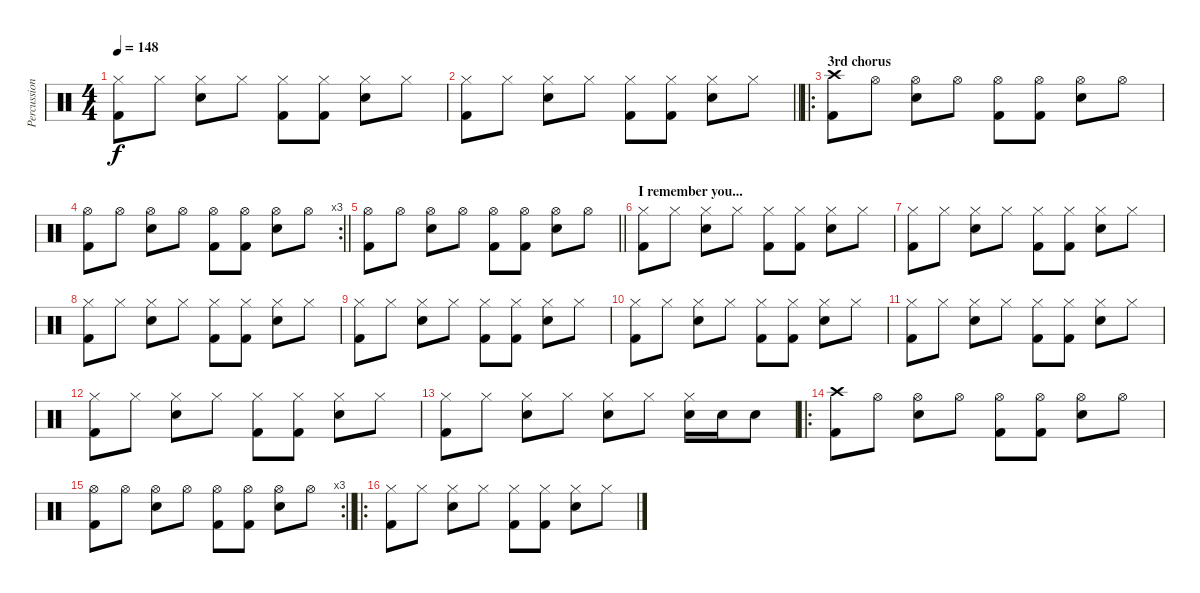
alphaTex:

\track ("Percussion" "Percussion") {instrument percussion}
\staff {score}
\articulation defaults
\ts (4 4)
\tempo 148
\clef neutral
\ks c
("Hi-Hat (closed)" "Kick (hit) 2").8{dy f} "Hi-Hat (closed)".8 ("Hi-Hat (closed)" "Snare (hit) 2").8 "Hi-Hat (closed)".8 ("Hi-Hat (closed)" "Kick (hit) 2").8 ("Hi-Hat (closed)" "Kick (hit) 2").8 ("Hi-Hat (closed)" "Snare (hit) 2").8 "Hi-Hat (closed)".8 |
\barLineRight lightlight
("Hi-Hat (closed)" "Kick (hit) 2").8 "Hi-Hat (closed)".8 ("Hi-Hat (closed)" "Snare (hit) 2").8 "Hi-Hat (closed)".8 ("Hi-Hat (closed)" "Kick (hit) 2").8 ("Hi-Hat (closed)" "Kick (hit) 2").8 ("Hi-Hat (closed)" "Snare (hit) 2").8 "Hi-Hat (closed)".8 |
\ro
\section ("" "3rd chorus")
("Crash high (hit)" "Kick (hit) 2").8 "Hi-Hat (open)".8 ("Hi-Hat (open)" "Snare (hit) 2").8 "Hi-Hat (open)".8 ("Hi-Hat (open)" "Kick (hit) 2").8 ("Hi-Hat (open)" "Kick (hit) 2").8 ("Hi-Hat (open)" "Snare (hit) 2").8 "Hi-Hat (open)".8 |
\rc 3
\barLineRight lightlight
("Hi-Hat (open)" "Kick (hit) 2").8 "Hi-Hat (open)".8 ("Hi-Hat (open)" "Snare (hit) 2").8 "Hi-Hat (open)".8 ("Hi-Hat (open)" "Kick (hit) 2").8 ("Hi-Hat (open)" "Kick (hit) 2").8 ("Hi-Hat (open)" "Snare (hit) 2").8 "Hi-Hat (open)".8 |
\barLineRight lightlight
("Hi-Hat (open)" "Kick (hit) 2").8 "Hi-Hat (open)".8 ("Hi-Hat (open)" "Snare (hit) 2").8 "Hi-Hat (open)".8 ("Hi-Hat (open)" "Kick (hit) 2").8 ("Hi-Hat (open)" "Kick (hit) 2").8 ("Hi-Hat (open)" "Snare (hit) 2").8 "Hi-Hat (open)".8 |
\section ("" "I remember you...")
("Hi-Hat (closed)" "Kick (hit) 2").8 "Hi-Hat (closed)".8 ("Hi-Hat (closed)" "Snare (hit) 2").8 "Hi-Hat (closed)".8 ("Hi-Hat (closed)" "Kick (hit) 2").8 ("Hi-Hat (closed)" "Kick (hit) 2").8 ("Hi-Hat (closed)" "Snare (hit) 2").8 "Hi-Hat (closed)".8 |
("Hi-Hat (closed)" "Kick (hit) 2").8 "Hi-Hat (closed)".8 ("Hi-Hat (closed)" "Snare (hit) 2").8 "Hi-Hat (closed)".8 ("Hi-Hat (closed)" "Kick (hit) 2").8 ("Hi-Hat (closed)" "Kick (hit) 2").8 ("Hi-Hat (closed)" "Snare (hit) 2").8 "Hi-Hat (closed)".8 |
("Hi-Hat (closed)" "Kick (hit) 2").8 "Hi-Hat (closed)".8 ("Hi-Hat (closed)" "Snare (hit) 2").8 "Hi-Hat (closed)".8 ("Hi-Hat (closed)" "Kick (hit) 2").8 ("Hi-Hat (closed)" "Kick (hit) 2").8 ("Hi-Hat (closed)" "Snare (hit) 2").8 "Hi-Hat (closed)".8 |
("Hi-Hat (closed)" "Kick (hit) 2").8 "Hi-Hat (closed)".8 ("Hi-Hat (closed)" "Snare (hit) 2").8 "Hi-Hat (closed)".8 ("Hi-Hat (closed)" "Kick (hit) 2").8 ("Hi-Hat (closed)" "Kick (hit) 2").8 ("Hi-Hat (closed)" "Snare (hit) 2").8 "Hi-Hat (closed)".8 |
("Hi-Hat (closed)" "Kick (hit) 2").8 "Hi-Hat (closed)".8 ("Hi-Hat (closed)" "Snare (hit) 2").8 "Hi-Hat (closed)".8 ("Hi-Hat (closed)" "Kick (hit) 2").8 ("Hi-Hat (closed)" "Kick (hit) 2").8 ("Hi-Hat (closed)" "Snare (hit) 2").8 "Hi-Hat (closed)".8 |
("Hi-Hat (closed)" "Kick (hit) 2").8 "Hi-Hat (closed)".8 ("Hi-Hat (closed)" "Snare (hit) 2").8 "Hi-Hat (closed)".8 ("Hi-Hat (closed)" "Kick (hit) 2").8 ("Hi-Hat (closed)" "Kick (hit) 2").8 ("Hi-Hat (closed)" "Snare (hit) 2").8 "Hi-Hat (closed)".8 |
("Hi-Hat (closed)" "Kick (hit) 2").8 "Hi-Hat (closed)".8 ("Hi-Hat (closed)" "Snare (hit) 2").8 "Hi-Hat (closed)".8 ("Hi-Hat (closed)" "Kick (hit) 2").8 ("Hi-Hat (closed)" "Kick (hit) 2").8 ("Hi-Hat (closed)" "Snare (hit) 2").8 "Hi-Hat (closed)".8 |
("Hi-Hat (closed)" "Kick (hit) 2").8 "Hi-Hat (closed)".8 ("Hi-Hat (closed)" "Snare (hit) 2").8 "Hi-Hat (closed)".8 ("Hi-Hat (closed)" "Snare (hit) 2").8 "Hi-Hat (closed)".8 ("Hi-Hat (closed)" "Snare (hit) 2").16 "Snare (hit) 2".16 "Snare (hit) 2".8 |
\ro
("Crash high (hit)" "Kick (hit) 2").8 "Hi-Hat (open)".8 ("Hi-Hat (open)" "Snare (hit) 2").8 "Hi-Hat (open)".8 ("Hi-Hat (open)" "Kick (hit) 2").8 ("Hi-Hat (open)" "Kick (hit) 2").8 ("Hi-Hat (open)" "Snare (hit) 2").8 "Hi-Hat (open)".8 |
\rc 3
\barLineRight lightlight
("Hi-Hat (open)" "Kick (hit) 2").8 "Hi-Hat (open)".8 ("Hi-Hat (open)" "Snare (hit) 2").8 "Hi-Hat (open)".8 ("Hi-Hat (open)" "Kick (hit) 2").8 ("Hi-Hat (open)" "Kick (hit) 2").8 ("Hi-Hat (open)" "Snare (hit) 2").8 "Hi-Hat (open)".8 |
\ro
("Hi-Hat (closed)" "Kick (hit) 2").8 "Hi-Hat (closed)".8 ("Hi-Hat (closed)" "Snare (hit) 2").8 "Hi-Hat (closed)".8 ("Hi-Hat (closed)" "Kick (hit) 2").8 ("Hi-Hat (closed)" "Kick (hit) 2").8 ("Hi-Hat (closed)" "Snare (hit) 2").8 "Hi-Hat (closed)".8
